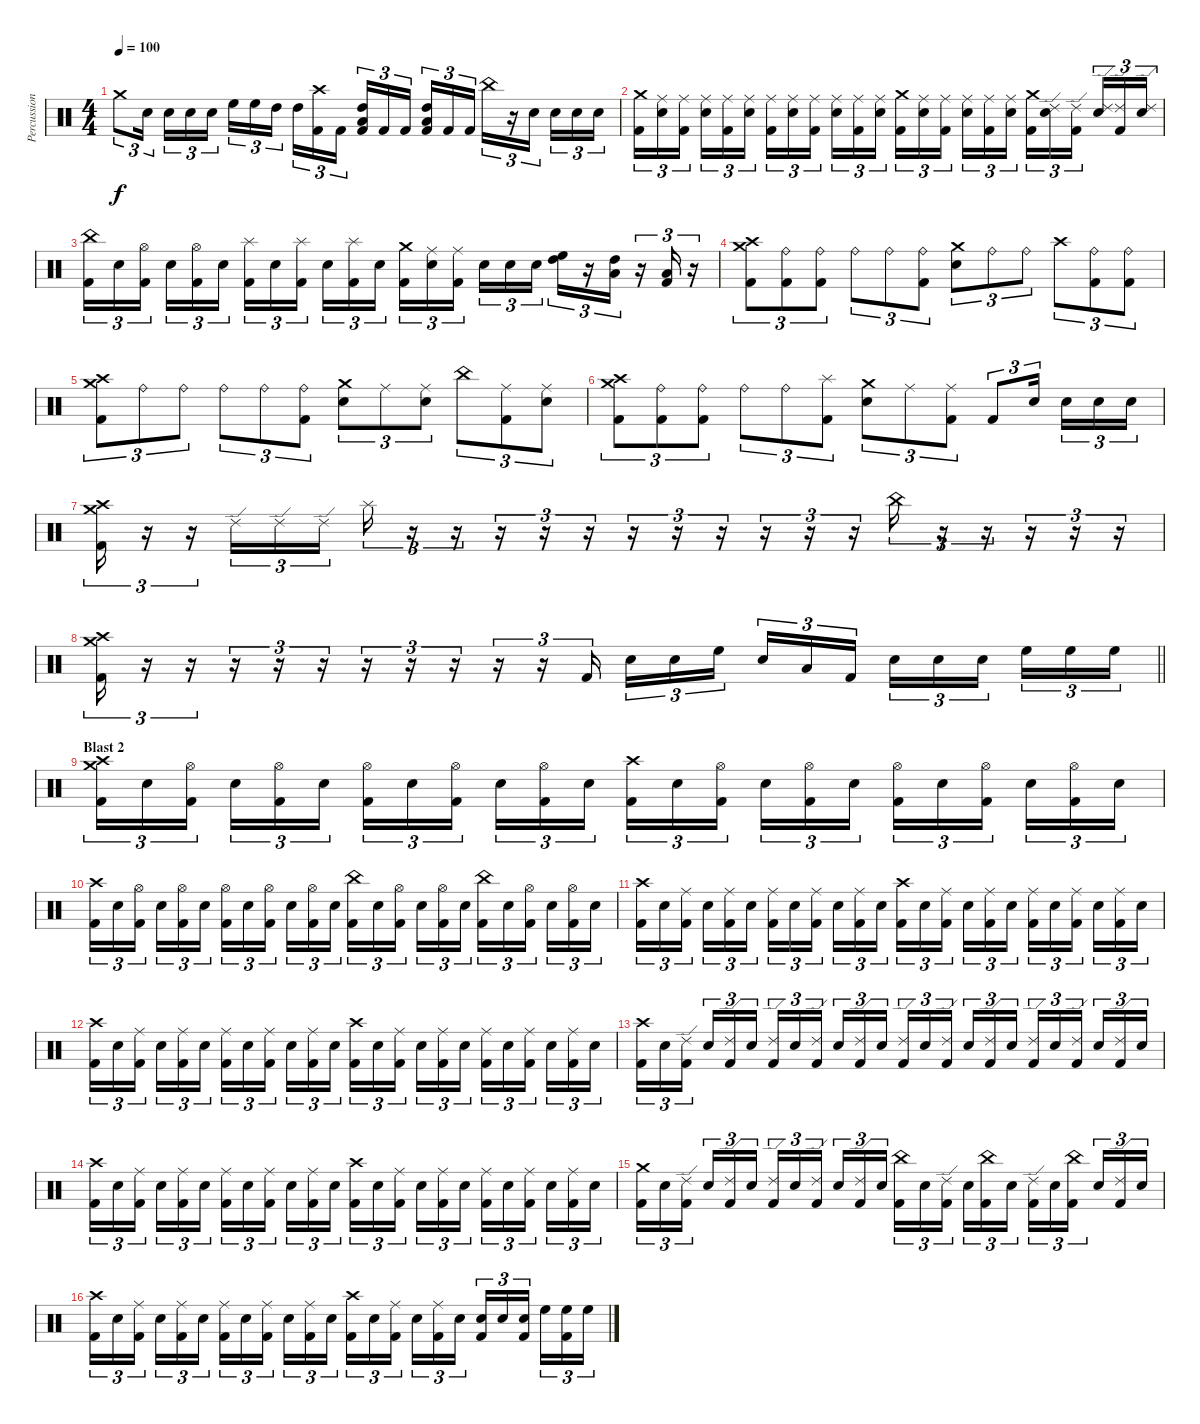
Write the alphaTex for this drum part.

\track ("Percussion" "Percussion") {instrument percussion}
\staff {score}
\articulation defaults
\ts (4 4)
\tempo 100
\clef neutral
\ks c "Crash medium (hit)".8{tu (3 2) dy f} "Electric Snare (hit)".16{tu (3 2) beam splitsecondary} "Electric Snare (hit)".16{tu (3 2)} "Electric Snare (hit)".16{tu (3 2)} "Electric Snare (hit)".16{tu (3 2)} "High Floor Tom (hit)".16{tu (3 2)} "High Floor Tom (hit)".16{tu (3 2)} "High Tom (hit)".16{tu (3 2) beam splitsecondary} "High Tom (hit)".16{tu (3 2)}
("Crash high (hit)" "Kick (hit) 2").16{tu (3 2)} "Kick (hit) 2".16{tu (3 2)} ("High Tom (hit)" "Low Tom (hit)" "Kick (hit) 2").16{tu (3 2)} "Kick (hit) 2".16{tu (3 2)} "Kick (hit) 2".16{tu (3 2) beam splitsecondary} ("High Tom (hit)" "Low Tom (hit)" "Kick (hit) 2").16{tu (3 2)} "Kick (hit) 2".16{tu (3 2)} "Kick (hit) 2".16{tu (3 2)} "China (hit)".16{tu (3 2)} r.16{tu (3 2)} "Electric Snare (hit)".16{tu (3 2) beam splitsecondary} "Electric Snare (hit)".16{tu (3 2)} "Electric Snare (hit)".16{tu (3 2)} "Electric Snare (hit)".16{tu (3 2)} |
("Crash medium (hit)" "Kick (hit) 2").16{tu (3 2)} ("Ride (middle)" "Electric Snare (hit)").16{tu (3 2)} ("Ride (middle)" "Kick (hit) 2").16{tu (3 2) beam splitsecondary} ("Ride (middle)" "Electric Snare (hit)").16{tu (3 2)} ("Ride (middle)" "Kick (hit) 2").16{tu (3 2)} ("Ride (middle)" "Electric Snare (hit)").16{tu (3 2)} ("Ride (middle)" "Kick (hit) 2").16{tu (3 2)} ("Ride (middle)" "Electric Snare (hit)").16{tu (3 2)} ("Ride (middle)" "Kick (hit) 2").16{tu (3 2) beam splitsecondary} ("Ride (middle)" "Electric Snare (hit)").16{tu (3 2)} ("Ride (middle)" "Kick (hit) 2").16{tu (3 2)} ("Ride (middle)" "Electric Snare (hit)").16{tu (3 2)} ("Crash medium (hit)" "Kick (hit) 2").16{tu (3 2)} ("Ride (middle)" "Electric Snare (hit)").16{tu (3 2)} ("Ride (middle)" "Kick (hit) 2").16{tu (3 2) beam splitsecondary} ("Ride (middle)" "Electric Snare (hit)").16{tu (3 2)} ("Ride (middle)" "Kick (hit) 2").16{tu (3 2)} ("Ride (middle)" "Electric Snare (hit)").16{tu (3 2)} ("Crash medium (hit)" "Kick (hit) 2").16{tu (3 2)} ("Ride (edge) 2" "Electric Snare (hit)").16{tu (3 2)} ("Ride (edge) 2" "Kick (hit) 2").16{tu (3 2) beam splitsecondary} ("Ride (edge) 2" "Electric Snare (hit)").16{tu (3 2)} ("Ride (edge) 2" "Kick (hit) 2").16{tu (3 2)} ("Ride (edge) 2" "Electric Snare (hit)").16{tu (3 2)} |
("China (hit)" "Kick (hit) 2").16{tu (3 2)} "Electric Snare (hit)".16{tu (3 2)} ("Hi-Hat (open)" "Kick (hit) 2").16{tu (3 2) beam splitsecondary} "Electric Snare (hit)".16{tu (3 2)} ("Hi-Hat (open)" "Kick (hit) 2").16{tu (3 2)} "Electric Snare (hit)".16{tu (3 2)} ("Splash (hit)" "Kick (hit) 2").16{tu (3 2)} "Electric Snare (hit)".16{tu (3 2)} ("Splash (hit)" "Kick (hit) 2").16{tu (3 2) beam splitsecondary} "Electric Snare (hit)".16{tu (3 2)} ("Splash (hit)" "Kick (hit) 2").16{tu (3 2)} "Electric Snare (hit)".16{tu (3 2)} ("Crash medium (hit)" "Kick (hit) 2").16{tu (3 2)} ("Ride (middle)" "Electric Snare (hit)").16{tu (3 2)} ("Ride (middle)" "Kick (hit) 2").16{tu (3 2) beam splitsecondary} "Electric Snare (hit)".16{tu (3 2)} "Electric Snare (hit)".16{tu (3 2)} "Electric Snare (hit)".16{tu (3 2)} ("High Floor Tom (hit)" "High Tom (hit)").16{tu (3 2)} r.16{tu (3 2)} ("High Tom (hit)" "Low Tom (hit)").16{tu (3 2)} r.16{tu (3 2)} ("Low Tom (hit)" "Kick (hit) 2").16{tu (3 2)} r.16{tu (3 2)} |
("Crash medium (hit)" "Crash high (hit)" "Kick (hit) 2").8{tu (3 2)} ("Ride (bell)" "Kick (hit) 2").8{tu (3 2)} ("Ride (bell)" "Kick (hit) 2").8{tu (3 2)} "Ride (bell)".8{tu (3 2)} "Ride (bell)".8{tu (3 2)} ("Ride (bell)" "Kick (hit) 2").8{tu (3 2)} ("Crash medium (hit)" "Electric Snare (hit)").8{tu (3 2)} "Ride (bell)".8{tu (3 2)} "Ride (bell)".8{tu (3 2)} "Crash high (hit)".8{tu (3 2)} ("Ride (bell)" "Kick (hit) 2").8{tu (3 2)} ("Ride (bell)" "Kick (hit) 2").8{tu (3 2)} |
("Crash medium (hit)" "Crash high (hit)" "Kick (hit) 2").8{tu (3 2)} "Ride (bell)".8{tu (3 2)} "Ride (bell)".8{tu (3 2)} "Ride (bell)".8{tu (3 2)} "Ride (bell)".8{tu (3 2)} ("Ride (bell)" "Kick (hit) 2").8{tu (3 2)} ("Crash medium (hit)" "Electric Snare (hit)").8{tu (3 2)} "Ride (middle)".8{tu (3 2)} ("Ride (middle)" "Electric Snare (hit)").8{tu (3 2)} "China (hit)".8{tu (3 2)} ("Ride (middle)" "Kick (hit) 2").8{tu (3 2)} ("Ride (middle)" "Electric Snare (hit)").8{tu (3 2)} |
("Crash medium (hit)" "Crash high (hit)" "Kick (hit) 2").8{tu (3 2)} ("Ride (bell)" "Kick (hit) 2").8{tu (3 2)} ("Ride (bell)" "Kick (hit) 2").8{tu (3 2)} "Ride (bell)".8{tu (3 2)} "Ride (bell)".8{tu (3 2)} ("Splash (hit)" "Kick (hit) 2").8{tu (3 2)} ("Crash medium (hit)" "Electric Snare (hit)").8{tu (3 2)} "Ride (middle)".8{tu (3 2)} ("Ride (middle)" "Kick (hit) 2").8{tu (3 2)} "Kick (hit) 2".8{tu (3 2)} "Electric Snare (hit)".16{tu (3 2) beam splitsecondary} "Electric Snare (hit)".16{tu (3 2)} "Electric Snare (hit)".16{tu (3 2)} "Electric Snare (hit)".16{tu (3 2)} |
("Crash high (hit)" "Crash medium (hit)" "Kick (hit) 2").16{tu (3 2)} r.16{tu (3 2)} r.16{tu (3 2)} "Ride (edge) 2".16{tu (3 2)} "Ride (edge) 2".16{tu (3 2)} "Ride (edge) 2".16{tu (3 2)} "Splash (hit)".16{tu (3 2)} r.16{tu (3 2)} r.16{tu (3 2)} r.16{tu (3 2)} r.16{tu (3 2)} r.16{tu (3 2)} r.16{tu (3 2)} r.16{tu (3 2)} r.16{tu (3 2)} r.16{tu (3 2)} r.16{tu (3 2)} r.16{tu (3 2)} "China (hit)".16{tu (3 2)} r.16{tu (3 2)} r.16{tu (3 2)} r.16{tu (3 2)} r.16{tu (3 2)} r.16{tu (3 2)} |
\barLineRight lightlight
("Crash high (hit)" "Crash medium (hit)" "Kick (hit) 2").16{tu (3 2)} r.16{tu (3 2)} r.16{tu (3 2)} r.16{tu (3 2)} r.16{tu (3 2)} r.16{tu (3 2)} r.16{tu (3 2)} r.16{tu (3 2)} r.16{tu (3 2)} r.16{tu (3 2)} r.16{tu (3 2)} "Kick (hit) 2".16{tu (3 2)} "Electric Snare (hit)".16{tu (3 2)} "Electric Snare (hit)".16{tu (3 2)} "High Floor Tom (hit)".16{tu (3 2) beam splitsecondary} "Electric Snare (hit)".16{tu (3 2)} "Low Tom (hit)".16{tu (3 2)} "Kick (hit) 2".16{tu (3 2)} "Electric Snare (hit)".16{tu (3 2)} "Electric Snare (hit)".16{tu (3 2)} "Electric Snare (hit)".16{tu (3 2) beam splitsecondary} "High Floor Tom (hit)".16{tu (3 2)} "High Floor Tom (hit)".16{tu (3 2)} "High Floor Tom (hit)".16{tu (3 2)} |
\section ("" "Blast 2")
("Crash high (hit)" "Crash medium (hit)" "Kick (hit) 2").16{tu (3 2)} "Electric Snare (hit)".16{tu (3 2)} ("Hi-Hat (open)" "Kick (hit) 2").16{tu (3 2) beam splitsecondary} "Electric Snare (hit)".16{tu (3 2)} ("Hi-Hat (open)" "Kick (hit) 2").16{tu (3 2)} "Electric Snare (hit)".16{tu (3 2)} ("Hi-Hat (open)" "Kick (hit) 2").16{tu (3 2)} "Electric Snare (hit)".16{tu (3 2)} ("Hi-Hat (open)" "Kick (hit) 2").16{tu (3 2) beam splitsecondary} "Electric Snare (hit)".16{tu (3 2)} ("Hi-Hat (open)" "Kick (hit) 2").16{tu (3 2)} "Electric Snare (hit)".16{tu (3 2)} ("Crash high (hit)" "Kick (hit) 2").16{tu (3 2)} "Electric Snare (hit)".16{tu (3 2)} ("Hi-Hat (open)" "Kick (hit) 2").16{tu (3 2) beam splitsecondary} "Electric Snare (hit)".16{tu (3 2)} ("Hi-Hat (open)" "Kick (hit) 2").16{tu (3 2)} "Electric Snare (hit)".16{tu (3 2)} ("Hi-Hat (open)" "Kick (hit) 2").16{tu (3 2)} "Electric Snare (hit)".16{tu (3 2)} ("Hi-Hat (open)" "Kick (hit) 2").16{tu (3 2) beam splitsecondary} "Electric Snare (hit)".16{tu (3 2)} ("Hi-Hat (open)" "Kick (hit) 2").16{tu (3 2)} "Electric Snare (hit)".16{tu (3 2)} |
("Crash high (hit)" "Kick (hit) 2").16{tu (3 2)} "Electric Snare (hit)".16{tu (3 2)} ("Hi-Hat (open)" "Kick (hit) 2").16{tu (3 2) beam splitsecondary} "Electric Snare (hit)".16{tu (3 2)} ("Hi-Hat (open)" "Kick (hit) 2").16{tu (3 2)} "Electric Snare (hit)".16{tu (3 2)} ("Hi-Hat (open)" "Kick (hit) 2").16{tu (3 2)} "Electric Snare (hit)".16{tu (3 2)} ("Hi-Hat (open)" "Kick (hit) 2").16{tu (3 2) beam splitsecondary} "Electric Snare (hit)".16{tu (3 2)} ("Hi-Hat (open)" "Kick (hit) 2").16{tu (3 2)} "Electric Snare (hit)".16{tu (3 2)} ("China (hit)" "Kick (hit) 2").16{tu (3 2)} "Electric Snare (hit)".16{tu (3 2)} ("Hi-Hat (open)" "Kick (hit) 2").16{tu (3 2) beam splitsecondary} "Electric Snare (hit)".16{tu (3 2)} ("Hi-Hat (open)" "Kick (hit) 2").16{tu (3 2)} "Electric Snare (hit)".16{tu (3 2)} ("China (hit)" "Kick (hit) 2").16{tu (3 2)} "Electric Snare (hit)".16{tu (3 2)} ("Hi-Hat (open)" "Kick (hit) 2").16{tu (3 2) beam splitsecondary} "Electric Snare (hit)".16{tu (3 2)} ("Hi-Hat (open)" "Kick (hit) 2").16{tu (3 2)} "Electric Snare (hit)".16{tu (3 2)} |
("Crash high (hit)" "Kick (hit) 2").16{tu (3 2)} "Electric Snare (hit)".16{tu (3 2)} ("Ride (middle)" "Kick (hit) 2").16{tu (3 2) beam splitsecondary} "Electric Snare (hit)".16{tu (3 2)} ("Ride (middle)" "Kick (hit) 2").16{tu (3 2)} "Electric Snare (hit)".16{tu (3 2)} ("Ride (middle)" "Kick (hit) 2").16{tu (3 2)} "Electric Snare (hit)".16{tu (3 2)} ("Ride (middle)" "Kick (hit) 2").16{tu (3 2) beam splitsecondary} "Electric Snare (hit)".16{tu (3 2)} ("Ride (middle)" "Kick (hit) 2").16{tu (3 2)} "Electric Snare (hit)".16{tu (3 2)} ("Crash high (hit)" "Kick (hit) 2").16{tu (3 2)} "Electric Snare (hit)".16{tu (3 2)} ("Ride (middle)" "Kick (hit) 2").16{tu (3 2) beam splitsecondary} "Electric Snare (hit)".16{tu (3 2)} ("Ride (middle)" "Kick (hit) 2").16{tu (3 2)} "Electric Snare (hit)".16{tu (3 2)} ("Ride (middle)" "Kick (hit) 2").16{tu (3 2)} "Electric Snare (hit)".16{tu (3 2)} ("Ride (middle)" "Kick (hit) 2").16{tu (3 2) beam splitsecondary} "Electric Snare (hit)".16{tu (3 2)} ("Ride (middle)" "Kick (hit) 2").16{tu (3 2)} "Electric Snare (hit)".16{tu (3 2)} |
("Crash high (hit)" "Kick (hit) 2").16{tu (3 2)} "Electric Snare (hit)".16{tu (3 2)} ("Ride (middle)" "Kick (hit) 2").16{tu (3 2) beam splitsecondary} "Electric Snare (hit)".16{tu (3 2)} ("Ride (middle)" "Kick (hit) 2").16{tu (3 2)} "Electric Snare (hit)".16{tu (3 2)} ("Ride (middle)" "Kick (hit) 2").16{tu (3 2)} "Electric Snare (hit)".16{tu (3 2)} ("Ride (middle)" "Kick (hit) 2").16{tu (3 2) beam splitsecondary} "Electric Snare (hit)".16{tu (3 2)} ("Ride (middle)" "Kick (hit) 2").16{tu (3 2)} "Electric Snare (hit)".16{tu (3 2)} ("Crash high (hit)" "Kick (hit) 2").16{tu (3 2)} "Electric Snare (hit)".16{tu (3 2)} ("Ride (middle)" "Kick (hit) 2").16{tu (3 2) beam splitsecondary} "Electric Snare (hit)".16{tu (3 2)} ("Ride (middle)" "Kick (hit) 2").16{tu (3 2)} "Electric Snare (hit)".16{tu (3 2)} ("Ride (middle)" "Kick (hit) 2").16{tu (3 2)} "Electric Snare (hit)".16{tu (3 2)} ("Ride (middle)" "Kick (hit) 2").16{tu (3 2) beam splitsecondary} "Electric Snare (hit)".16{tu (3 2)} ("Ride (middle)" "Kick (hit) 2").16{tu (3 2)} "Electric Snare (hit)".16{tu (3 2)} |
("Crash high (hit)" "Kick (hit) 2").16{tu (3 2)} "Electric Snare (hit)".16{tu (3 2)} ("Ride (edge) 2" "Kick (hit) 2").16{tu (3 2) beam splitsecondary} "Electric Snare (hit)".16{tu (3 2)} ("Ride (edge) 2" "Kick (hit) 2").16{tu (3 2)} "Electric Snare (hit)".16{tu (3 2)} ("Ride (edge) 2" "Kick (hit) 2").16{tu (3 2)} "Electric Snare (hit)".16{tu (3 2)} ("Ride (edge) 2" "Kick (hit) 2").16{tu (3 2) beam splitsecondary} "Electric Snare (hit)".16{tu (3 2)} ("Ride (edge) 2" "Kick (hit) 2").16{tu (3 2)} "Electric Snare (hit)".16{tu (3 2)} ("Ride (edge) 2" "Kick (hit) 2").16{tu (3 2)} "Electric Snare (hit)".16{tu (3 2)} ("Ride (edge) 2" "Kick (hit) 2").16{tu (3 2) beam splitsecondary} "Electric Snare (hit)".16{tu (3 2)} ("Ride (edge) 2" "Kick (hit) 2").16{tu (3 2)} "Electric Snare (hit)".16{tu (3 2)} ("Ride (edge) 2" "Kick (hit) 2").16{tu (3 2)} "Electric Snare (hit)".16{tu (3 2)} ("Ride (edge) 2" "Kick (hit) 2").16{tu (3 2) beam splitsecondary} "Electric Snare (hit)".16{tu (3 2)} ("Ride (edge) 2" "Kick (hit) 2").16{tu (3 2)} "Electric Snare (hit)".16{tu (3 2)} |
("Crash high (hit)" "Kick (hit) 2").16{tu (3 2)} "Electric Snare (hit)".16{tu (3 2)} ("Ride (middle)" "Kick (hit) 2").16{tu (3 2) beam splitsecondary} "Electric Snare (hit)".16{tu (3 2)} ("Ride (middle)" "Kick (hit) 2").16{tu (3 2)} "Electric Snare (hit)".16{tu (3 2)} ("Ride (middle)" "Kick (hit) 2").16{tu (3 2)} "Electric Snare (hit)".16{tu (3 2)} ("Ride (middle)" "Kick (hit) 2").16{tu (3 2) beam splitsecondary} "Electric Snare (hit)".16{tu (3 2)} ("Ride (middle)" "Kick (hit) 2").16{tu (3 2)} "Electric Snare (hit)".16{tu (3 2)} ("Crash high (hit)" "Kick (hit) 2").16{tu (3 2)} "Electric Snare (hit)".16{tu (3 2)} ("Ride (middle)" "Kick (hit) 2").16{tu (3 2) beam splitsecondary} "Electric Snare (hit)".16{tu (3 2)} ("Ride (middle)" "Kick (hit) 2").16{tu (3 2)} "Electric Snare (hit)".16{tu (3 2)} ("Ride (middle)" "Kick (hit) 2").16{tu (3 2)} "Electric Snare (hit)".16{tu (3 2)} ("Ride (middle)" "Kick (hit) 2").16{tu (3 2) beam splitsecondary} "Electric Snare (hit)".16{tu (3 2)} ("Ride (middle)" "Kick (hit) 2").16{tu (3 2)} "Electric Snare (hit)".16{tu (3 2)} |
("Crash medium (hit)" "Kick (hit) 2").16{tu (3 2)} "Electric Snare (hit)".16{tu (3 2)} ("Ride (edge) 2" "Kick (hit) 2").16{tu (3 2) beam splitsecondary} "Electric Snare (hit)".16{tu (3 2)} ("Ride (edge) 2" "Kick (hit) 2").16{tu (3 2)} "Electric Snare (hit)".16{tu (3 2)} ("Ride (edge) 2" "Kick (hit) 2").16{tu (3 2)} "Electric Snare (hit)".16{tu (3 2)} ("Ride (edge) 2" "Kick (hit) 2").16{tu (3 2) beam splitsecondary} "Electric Snare (hit)".16{tu (3 2)} ("Ride (edge) 2" "Kick (hit) 2").16{tu (3 2)} "Electric Snare (hit)".16{tu (3 2)} ("China (hit)" "Kick (hit) 2").16{tu (3 2)} "Electric Snare (hit)".16{tu (3 2)} ("Ride (edge) 2" "Kick (hit) 2").16{tu (3 2) beam splitsecondary} "Electric Snare (hit)".16{tu (3 2)} ("China (hit)" "Kick (hit) 2").16{tu (3 2)} "Electric Snare (hit)".16{tu (3 2)} ("Ride (edge) 2" "Kick (hit) 2").16{tu (3 2)} "Electric Snare (hit)".16{tu (3 2)} ("China (hit)" "Kick (hit) 2").16{tu (3 2) beam splitsecondary} "Electric Snare (hit)".16{tu (3 2)} ("Ride (edge) 2" "Kick (hit) 2").16{tu (3 2)} "Electric Snare (hit)".16{tu (3 2)} |
("Crash high (hit)" "Kick (hit) 2").16{tu (3 2)} "Electric Snare (hit)".16{tu (3 2)} ("Ride (middle)" "Kick (hit) 2").16{tu (3 2) beam splitsecondary} "Electric Snare (hit)".16{tu (3 2)} ("Ride (middle)" "Kick (hit) 2").16{tu (3 2)} "Electric Snare (hit)".16{tu (3 2)} ("Ride (middle)" "Kick (hit) 2").16{tu (3 2)} "Electric Snare (hit)".16{tu (3 2)} ("Ride (middle)" "Kick (hit) 2").16{tu (3 2) beam splitsecondary} "Electric Snare (hit)".16{tu (3 2)} ("Ride (middle)" "Kick (hit) 2").16{tu (3 2)} "Electric Snare (hit)".16{tu (3 2)} ("Crash high (hit)" "Kick (hit) 2").16{tu (3 2)} "Electric Snare (hit)".16{tu (3 2)} ("Ride (middle)" "Kick (hit) 2").16{tu (3 2) beam splitsecondary} "Electric Snare (hit)".16{tu (3 2)} ("Ride (middle)" "Kick (hit) 2").16{tu (3 2)} "Electric Snare (hit)".16{tu (3 2)} ("Electric Snare (hit)" "Kick (hit) 2").16{tu (3 2)} "Electric Snare (hit)".16{tu (3 2)} ("Electric Snare (hit)" "Kick (hit) 2").16{tu (3 2) beam splitsecondary} "High Floor Tom (hit)".16{tu (3 2)} ("High Floor Tom (hit)" "Kick (hit) 2").16{tu (3 2)} "High Floor Tom (hit)".16{tu (3 2)}
